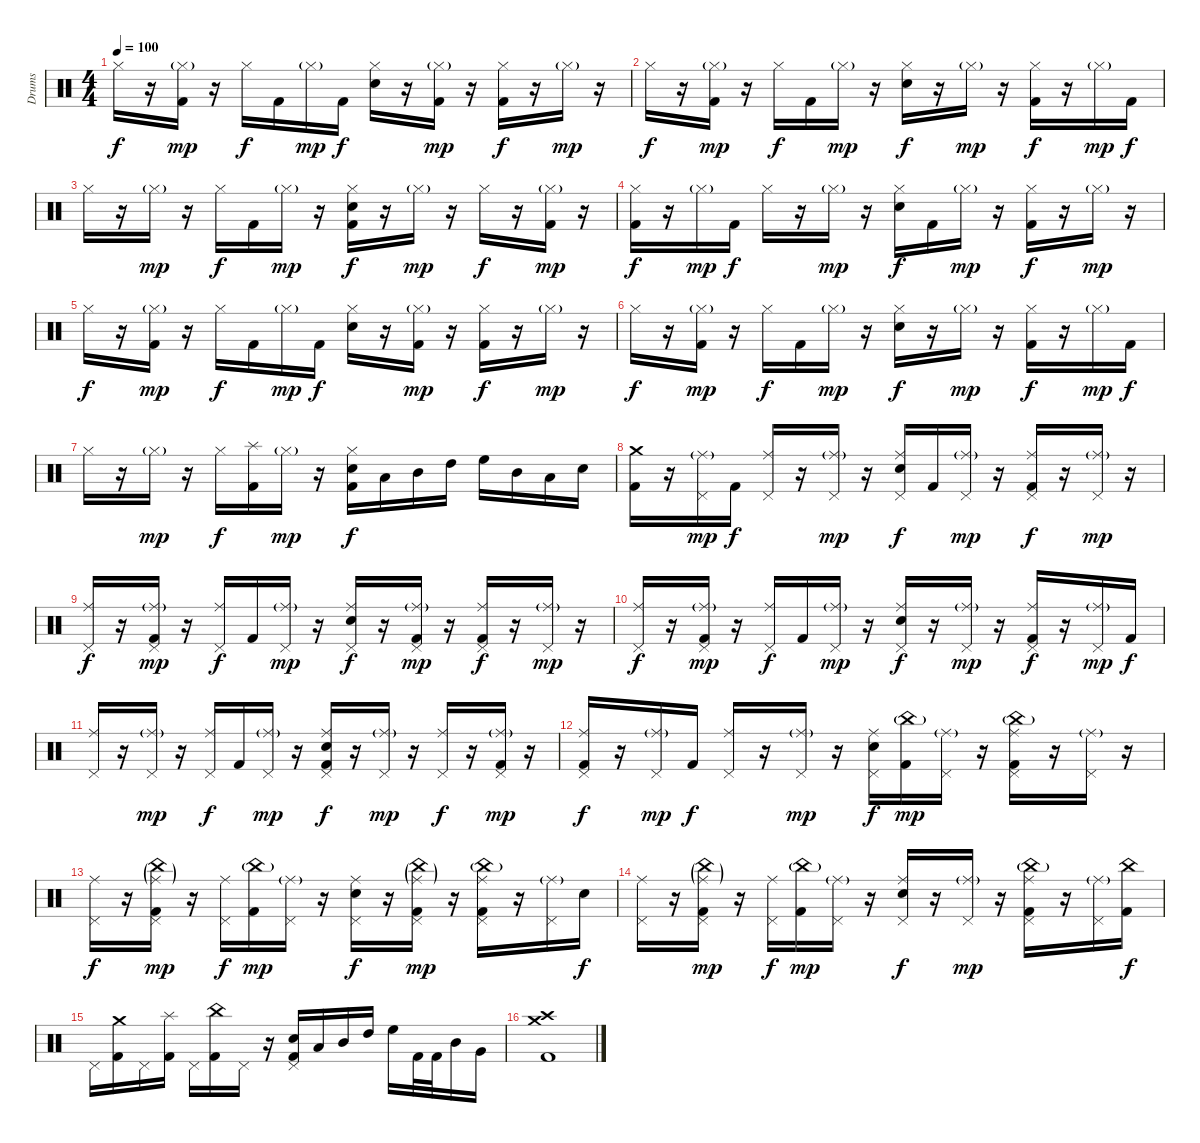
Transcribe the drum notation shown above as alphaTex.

\track ("Drums" "Drums") {instrument percussion}
\staff {score}
\articulation defaults
\ts (4 4)
\tempo 100
\clef neutral
\ks c "Hi-Hat (closed)".16{dy f}
r.16 ("Hi-Hat (closed)"{g} "Kick (hit) 2").16{dy mp} r.16 "Hi-Hat (closed)".16{dy f} "Kick (hit) 2".16 "Hi-Hat (closed)"{g}.16{dy mp} "Kick (hit) 2".16{dy f} ("Hi-Hat (closed)" "Electric Snare (hit)").16 r.16 ("Hi-Hat (closed)"{g} "Kick (hit) 2").16{dy mp} r.16 ("Hi-Hat (closed)" "Kick (hit) 2").16{dy f} r.16 "Hi-Hat (closed)"{g}.16{dy mp} r.16 |
"Hi-Hat (closed)".16{dy f} r.16 ("Hi-Hat (closed)"{g} "Kick (hit) 2").16{dy mp} r.16 "Hi-Hat (closed)".16{dy f} "Kick (hit) 2".16 "Hi-Hat (closed)"{g}.16{dy mp} r.16 ("Hi-Hat (closed)" "Electric Snare (hit)").16{dy f} r.16 "Hi-Hat (closed)"{g}.16{dy mp} r.16 ("Hi-Hat (closed)" "Kick (hit) 2").16{dy f} r.16 "Hi-Hat (closed)"{g}.16{dy mp} "Kick (hit) 2".16{dy f} |
"Hi-Hat (closed)".16 r.16 "Hi-Hat (closed)"{g}.16{dy mp} r.16 "Hi-Hat (closed)".16{dy f} "Kick (hit) 2".16 "Hi-Hat (closed)"{g}.16{dy mp} r.16 ("Hi-Hat (closed)" "Electric Snare (hit)" "Kick (hit) 2").16{dy f} r.16 "Hi-Hat (closed)"{g}.16{dy mp} r.16 "Hi-Hat (closed)".16{dy f} r.16 ("Hi-Hat (closed)"{g} "Kick (hit) 2").16{dy mp} r.16 |
("Hi-Hat (closed)" "Kick (hit) 2").16{dy f} r.16 "Hi-Hat (closed)"{g}.16{dy mp} "Kick (hit) 2".16{dy f} "Hi-Hat (closed)".16 r.16 "Hi-Hat (closed)"{g}.16{dy mp} r.16 ("Hi-Hat (closed)" "Electric Snare (hit)").16{dy f} "Kick (hit) 2".16 "Hi-Hat (closed)"{g}.16{dy mp} r.16 ("Hi-Hat (closed)" "Kick (hit) 2").16{dy f} r.16 "Hi-Hat (closed)"{g}.16{dy mp} r.16 |
"Hi-Hat (closed)".16{dy f} r.16 ("Hi-Hat (closed)"{g} "Kick (hit) 2").16{dy mp} r.16 "Hi-Hat (closed)".16{dy f} "Kick (hit) 2".16 "Hi-Hat (closed)"{g}.16{dy mp} "Kick (hit) 2".16{dy f} ("Hi-Hat (closed)" "Electric Snare (hit)").16 r.16 ("Hi-Hat (closed)"{g} "Kick (hit) 2").16{dy mp} r.16 ("Hi-Hat (closed)" "Kick (hit) 2").16{dy f} r.16 "Hi-Hat (closed)"{g}.16{dy mp} r.16 |
"Hi-Hat (closed)".16{dy f} r.16 ("Hi-Hat (closed)"{g} "Kick (hit) 2").16{dy mp} r.16 "Hi-Hat (closed)".16{dy f} "Kick (hit) 2".16 "Hi-Hat (closed)"{g}.16{dy mp} r.16 ("Hi-Hat (closed)" "Electric Snare (hit)").16{dy f} r.16 "Hi-Hat (closed)"{g}.16{dy mp} r.16 ("Hi-Hat (closed)" "Kick (hit) 2").16{dy f} r.16 "Hi-Hat (closed)"{g}.16{dy mp} "Kick (hit) 2".16{dy f} |
"Hi-Hat (closed)".16 r.16 "Hi-Hat (closed)"{g}.16{dy mp} r.16 "Hi-Hat (closed)".16{dy f} ("Splash (hit)" "Kick (hit) 2").16 "Hi-Hat (closed)"{g}.16{dy mp} r.16 ("Hi-Hat (closed)" "Electric Snare (hit)" "Kick (hit) 2").16{dy f} "Low Tom (hit)".16 "Mid Tom (hit)".16 "High Tom (hit)".16 "High Floor Tom (hit)".16 "Mid Tom (hit)".16 "Low Tom (hit)".16 "Electric Snare (hit)".16 |
("Crash medium (hit)" "Kick (hit) 2").16 r.16 ("Ride (middle)"{g} "Pedal Hi-Hat (hit)").16{dy mp} "Kick (hit) 2".16{dy f} ("Ride (middle)" "Pedal Hi-Hat (hit)").16 r.16 ("Ride (middle)"{g} "Pedal Hi-Hat (hit)").16{dy mp} r.16 ("Ride (middle)" "Pedal Hi-Hat (hit)" "Electric Snare (hit)").16{dy f} "Kick (hit) 2".16 ("Ride (middle)"{g} "Pedal Hi-Hat (hit)").16{dy mp} r.16 ("Ride (middle)" "Pedal Hi-Hat (hit)" "Kick (hit) 2").16{dy f} r.16 ("Ride (middle)"{g} "Pedal Hi-Hat (hit)").16{dy mp} r.16 |
("Ride (middle)" "Pedal Hi-Hat (hit)").16{dy f} r.16 ("Ride (middle)"{g} "Pedal Hi-Hat (hit)" "Kick (hit) 2").16{dy mp} r.16 ("Ride (middle)" "Pedal Hi-Hat (hit)").16{dy f} "Kick (hit) 2".16 ("Ride (middle)"{g} "Pedal Hi-Hat (hit)").16{dy mp} r.16 ("Ride (middle)" "Pedal Hi-Hat (hit)" "Electric Snare (hit)").16{dy f} r.16 ("Ride (middle)"{g} "Pedal Hi-Hat (hit)" "Kick (hit) 2").16{dy mp} r.16 ("Ride (middle)" "Pedal Hi-Hat (hit)" "Kick (hit) 2").16{dy f} r.16 ("Ride (middle)"{g} "Pedal Hi-Hat (hit)").16{dy mp} r.16 |
("Ride (middle)" "Pedal Hi-Hat (hit)").16{dy f} r.16 ("Ride (middle)"{g} "Pedal Hi-Hat (hit)" "Kick (hit) 2").16{dy mp} r.16 ("Ride (middle)" "Pedal Hi-Hat (hit)").16{dy f} "Kick (hit) 2".16 ("Ride (middle)"{g} "Pedal Hi-Hat (hit)").16{dy mp} r.16 ("Ride (middle)" "Pedal Hi-Hat (hit)" "Electric Snare (hit)").16{dy f} r.16 ("Ride (middle)"{g} "Pedal Hi-Hat (hit)").16{dy mp} r.16 ("Ride (middle)" "Pedal Hi-Hat (hit)" "Kick (hit) 2").16{dy f} r.16 ("Ride (middle)"{g} "Pedal Hi-Hat (hit)").16{dy mp} "Kick (hit) 2".16{dy f} |
("Ride (middle)" "Pedal Hi-Hat (hit)").16 r.16 ("Ride (middle)"{g} "Pedal Hi-Hat (hit)").16{dy mp} r.16 ("Ride (middle)" "Pedal Hi-Hat (hit)").16{dy f} "Kick (hit) 2".16 ("Ride (middle)"{g} "Pedal Hi-Hat (hit)").16{dy mp} r.16 ("Ride (middle)" "Pedal Hi-Hat (hit)" "Electric Snare (hit)" "Kick (hit) 2").16{dy f} r.16 ("Ride (middle)"{g} "Pedal Hi-Hat (hit)").16{dy mp} r.16 ("Ride (middle)" "Pedal Hi-Hat (hit)").16{dy f} r.16 ("Ride (middle)"{g} "Pedal Hi-Hat (hit)" "Kick (hit) 2").16{dy mp} r.16 |
("Ride (middle)" "Pedal Hi-Hat (hit)" "Kick (hit) 2").16{dy f} r.16 ("Ride (middle)"{g} "Pedal Hi-Hat (hit)").16{dy mp} "Kick (hit) 2".16{dy f} ("Ride (middle)" "Pedal Hi-Hat (hit)").16 r.16 ("Ride (middle)"{g} "Pedal Hi-Hat (hit)").16{dy mp} r.16 ("Ride (middle)" "Pedal Hi-Hat (hit)" "Electric Snare (hit)").16{dy f} ("China (hit)"{g} "Kick (hit) 2").16{dy mp} ("Ride (middle)"{g} "Pedal Hi-Hat (hit)").16 r.16 ("China (hit)"{g} "Ride (middle)" "Pedal Hi-Hat (hit)" "Kick (hit) 2").16 r.16 ("Ride (middle)"{g} "Pedal Hi-Hat (hit)").16 r.16 |
("Ride (middle)" "Pedal Hi-Hat (hit)").16{dy f} r.16 ("China (hit)"{g} "Ride (middle)"{g} "Pedal Hi-Hat (hit)" "Kick (hit) 2").16{dy mp} r.16 ("Ride (middle)" "Pedal Hi-Hat (hit)").16{dy f} ("China (hit)"{g} "Kick (hit) 2").16{dy mp} ("Ride (middle)"{g} "Pedal Hi-Hat (hit)").16 r.16 ("Ride (middle)" "Pedal Hi-Hat (hit)" "Electric Snare (hit)").16{dy f} r.16 ("China (hit)"{g} "Ride (middle)"{g} "Pedal Hi-Hat (hit)" "Kick (hit) 2").16{dy mp} r.16 ("China (hit)"{g} "Ride (middle)" "Pedal Hi-Hat (hit)" "Kick (hit) 2").16 r.16 ("Ride (middle)"{g} "Pedal Hi-Hat (hit)").16 "Electric Snare (hit)".16{dy f} |
("Ride (middle)" "Pedal Hi-Hat (hit)").16 r.16 ("China (hit)"{g} "Ride (middle)"{g} "Pedal Hi-Hat (hit)" "Kick (hit) 2").16{dy mp} r.16 ("Ride (middle)" "Pedal Hi-Hat (hit)").16{dy f} ("China (hit)"{g} "Kick (hit) 2").16{dy mp} ("Ride (middle)"{g} "Pedal Hi-Hat (hit)").16 r.16 ("Ride (middle)" "Pedal Hi-Hat (hit)" "Electric Snare (hit)").16{dy f} r.16 ("Ride (middle)"{g} "Pedal Hi-Hat (hit)").16{dy mp} r.16 ("China (hit)"{g} "Ride (middle)" "Pedal Hi-Hat (hit)" "Kick (hit) 2").16 r.16 ("Ride (middle)"{g} "Pedal Hi-Hat (hit)").16 ("China (hit)" "Kick (hit) 2").16{dy f} |
"Pedal Hi-Hat (hit)".16 ("Crash medium (hit)" "Kick (hit) 2").16 "Pedal Hi-Hat (hit)".16 ("Splash (hit)" "Kick (hit) 2").16 "Pedal Hi-Hat (hit)".16 ("China (hit)" "Kick (hit) 2").16 "Pedal Hi-Hat (hit)".16 r.16 ("Pedal Hi-Hat (hit)" "Electric Snare (hit)" "Kick (hit) 2").16 "Low Tom (hit)".16 "Mid Tom (hit)".16 "High Tom (hit)".16 "High Floor Tom (hit)".16 "Kick (hit) 2".32 "Kick (hit) 2".32 "Mid Tom (hit)".16 "Very Low Tom (hit)".16 |
("Crash medium (hit)" "Crash high (hit)" "Kick (hit) 2").1
